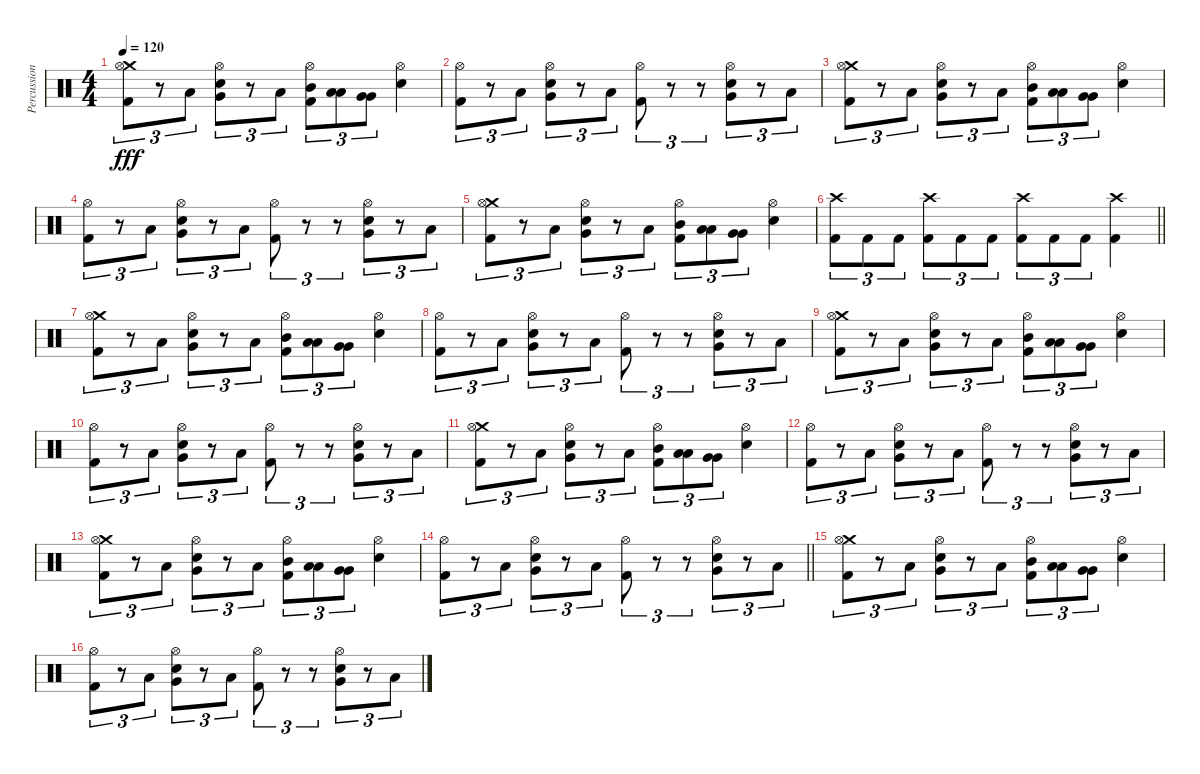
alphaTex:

\track ("Percussion" "Percussion") {instrument percussion}
\staff {score}
\articulation defaults
\ts (4 4)
\tempo 120
\clef neutral
\ks c
("Crash medium (hit)" "Hi-Hat (open)" "Kick (hit) 2").8{tu (3 2) dy fff} r.8{tu (3 2)} "Low Tom (hit)".8{tu (3 2)} ("Very Low Tom (hit)" "Hi-Hat (open)" "Snare (hit) 2").8{tu (3 2)} r.8{tu (3 2)} "Low Tom (hit)".8{tu (3 2)} ("Mid Tom (hit)" "Hi-Hat (open)" "Kick (hit) 2").8{tu (3 2)} ("Low Tom (hit)" "Low Tom (hit)").8{tu (3 2)} ("Very Low Tom (hit)" "Very Low Tom (hit)").8{tu (3 2)} ("Hi-Hat (open)" "Snare (hit) 2").4 |
("Hi-Hat (open)" "Kick (hit) 2").8{tu (3 2)} r.8{tu (3 2)} "Low Tom (hit)".8{tu (3 2)} ("Very Low Tom (hit)" "Hi-Hat (open)" "Snare (hit) 2").8{tu (3 2)} r.8{tu (3 2)} "Low Tom (hit)".8{tu (3 2)} ("Hi-Hat (open)" "Kick (hit) 2").8{tu (3 2)} r.8{tu (3 2)} r.8{tu (3 2)} ("Very Low Tom (hit)" "Hi-Hat (open)" "Snare (hit) 2").8{tu (3 2)} r.8{tu (3 2)} "Low Tom (hit)".8{tu (3 2)} |
("Crash medium (hit)" "Hi-Hat (open)" "Kick (hit) 2").8{tu (3 2)} r.8{tu (3 2)} "Low Tom (hit)".8{tu (3 2)} ("Very Low Tom (hit)" "Hi-Hat (open)" "Snare (hit) 2").8{tu (3 2)} r.8{tu (3 2)} "Low Tom (hit)".8{tu (3 2)} ("Mid Tom (hit)" "Hi-Hat (open)" "Kick (hit) 2").8{tu (3 2)} ("Low Tom (hit)" "Low Tom (hit)").8{tu (3 2)} ("Very Low Tom (hit)" "Very Low Tom (hit)").8{tu (3 2)} ("Hi-Hat (open)" "Snare (hit) 2").4 |
("Hi-Hat (open)" "Kick (hit) 2").8{tu (3 2)} r.8{tu (3 2)} "Low Tom (hit)".8{tu (3 2)} ("Very Low Tom (hit)" "Hi-Hat (open)" "Snare (hit) 2").8{tu (3 2)} r.8{tu (3 2)} "Low Tom (hit)".8{tu (3 2)} ("Hi-Hat (open)" "Kick (hit) 2").8{tu (3 2)} r.8{tu (3 2)} r.8{tu (3 2)} ("Very Low Tom (hit)" "Hi-Hat (open)" "Snare (hit) 2").8{tu (3 2)} r.8{tu (3 2)} "Low Tom (hit)".8{tu (3 2)} |
("Crash medium (hit)" "Hi-Hat (open)" "Kick (hit) 2").8{tu (3 2)} r.8{tu (3 2)} "Low Tom (hit)".8{tu (3 2)} ("Very Low Tom (hit)" "Hi-Hat (open)" "Snare (hit) 2").8{tu (3 2)} r.8{tu (3 2)} "Low Tom (hit)".8{tu (3 2)} ("Mid Tom (hit)" "Hi-Hat (open)" "Kick (hit) 2").8{tu (3 2)} ("Low Tom (hit)" "Low Tom (hit)").8{tu (3 2)} ("Very Low Tom (hit)" "Very Low Tom (hit)").8{tu (3 2)} ("Hi-Hat (open)" "Snare (hit) 2").4 |
\barLineRight lightlight
("Crash high (hit)" "Kick (hit) 2").8{tu (3 2)} "Kick (hit) 2".8{tu (3 2)} "Kick (hit) 2".8{tu (3 2)} ("Crash high (hit)" "Kick (hit) 2").8{tu (3 2)} "Kick (hit) 2".8{tu (3 2)} "Kick (hit) 2".8{tu (3 2)} ("Crash high (hit)" "Kick (hit) 2").8{tu (3 2)} "Kick (hit) 2".8{tu (3 2)} "Kick (hit) 2".8{tu (3 2)} ("Crash high (hit)" "Kick (hit) 2").4 |
\section ("" "")
("Crash medium (hit)" "Hi-Hat (open)" "Kick (hit) 2").8{tu (3 2)} r.8{tu (3 2)} "Low Tom (hit)".8{tu (3 2)} ("Very Low Tom (hit)" "Hi-Hat (open)" "Snare (hit) 2").8{tu (3 2)} r.8{tu (3 2)} "Low Tom (hit)".8{tu (3 2)} ("Mid Tom (hit)" "Hi-Hat (open)" "Kick (hit) 2").8{tu (3 2)} ("Low Tom (hit)" "Low Tom (hit)").8{tu (3 2)} ("Very Low Tom (hit)" "Very Low Tom (hit)").8{tu (3 2)} ("Hi-Hat (open)" "Snare (hit) 2").4 |
("Hi-Hat (open)" "Kick (hit) 2").8{tu (3 2)} r.8{tu (3 2)} "Low Tom (hit)".8{tu (3 2)} ("Very Low Tom (hit)" "Hi-Hat (open)" "Snare (hit) 2").8{tu (3 2)} r.8{tu (3 2)} "Low Tom (hit)".8{tu (3 2)} ("Hi-Hat (open)" "Kick (hit) 2").8{tu (3 2)} r.8{tu (3 2)} r.8{tu (3 2)} ("Very Low Tom (hit)" "Hi-Hat (open)" "Snare (hit) 2").8{tu (3 2)} r.8{tu (3 2)} "Low Tom (hit)".8{tu (3 2)} |
("Crash medium (hit)" "Hi-Hat (open)" "Kick (hit) 2").8{tu (3 2)} r.8{tu (3 2)} "Low Tom (hit)".8{tu (3 2)} ("Very Low Tom (hit)" "Hi-Hat (open)" "Snare (hit) 2").8{tu (3 2)} r.8{tu (3 2)} "Low Tom (hit)".8{tu (3 2)} ("Mid Tom (hit)" "Hi-Hat (open)" "Kick (hit) 2").8{tu (3 2)} ("Low Tom (hit)" "Low Tom (hit)").8{tu (3 2)} ("Very Low Tom (hit)" "Very Low Tom (hit)").8{tu (3 2)} ("Hi-Hat (open)" "Snare (hit) 2").4 |
("Hi-Hat (open)" "Kick (hit) 2").8{tu (3 2)} r.8{tu (3 2)} "Low Tom (hit)".8{tu (3 2)} ("Very Low Tom (hit)" "Hi-Hat (open)" "Snare (hit) 2").8{tu (3 2)} r.8{tu (3 2)} "Low Tom (hit)".8{tu (3 2)} ("Hi-Hat (open)" "Kick (hit) 2").8{tu (3 2)} r.8{tu (3 2)} r.8{tu (3 2)} ("Very Low Tom (hit)" "Hi-Hat (open)" "Snare (hit) 2").8{tu (3 2)} r.8{tu (3 2)} "Low Tom (hit)".8{tu (3 2)} |
("Crash medium (hit)" "Hi-Hat (open)" "Kick (hit) 2").8{tu (3 2)} r.8{tu (3 2)} "Low Tom (hit)".8{tu (3 2)} ("Very Low Tom (hit)" "Hi-Hat (open)" "Snare (hit) 2").8{tu (3 2)} r.8{tu (3 2)} "Low Tom (hit)".8{tu (3 2)} ("Mid Tom (hit)" "Hi-Hat (open)" "Kick (hit) 2").8{tu (3 2)} ("Low Tom (hit)" "Low Tom (hit)").8{tu (3 2)} ("Very Low Tom (hit)" "Very Low Tom (hit)").8{tu (3 2)} ("Hi-Hat (open)" "Snare (hit) 2").4 |
("Hi-Hat (open)" "Kick (hit) 2").8{tu (3 2)} r.8{tu (3 2)} "Low Tom (hit)".8{tu (3 2)} ("Very Low Tom (hit)" "Hi-Hat (open)" "Snare (hit) 2").8{tu (3 2)} r.8{tu (3 2)} "Low Tom (hit)".8{tu (3 2)} ("Hi-Hat (open)" "Kick (hit) 2").8{tu (3 2)} r.8{tu (3 2)} r.8{tu (3 2)} ("Very Low Tom (hit)" "Hi-Hat (open)" "Snare (hit) 2").8{tu (3 2)} r.8{tu (3 2)} "Low Tom (hit)".8{tu (3 2)} |
("Crash medium (hit)" "Hi-Hat (open)" "Kick (hit) 2").8{tu (3 2)} r.8{tu (3 2)} "Low Tom (hit)".8{tu (3 2)} ("Very Low Tom (hit)" "Hi-Hat (open)" "Snare (hit) 2").8{tu (3 2)} r.8{tu (3 2)} "Low Tom (hit)".8{tu (3 2)} ("Mid Tom (hit)" "Hi-Hat (open)" "Kick (hit) 2").8{tu (3 2)} ("Low Tom (hit)" "Low Tom (hit)").8{tu (3 2)} ("Very Low Tom (hit)" "Very Low Tom (hit)").8{tu (3 2)} ("Hi-Hat (open)" "Snare (hit) 2").4 |
\barLineRight lightlight
("Hi-Hat (open)" "Kick (hit) 2").8{tu (3 2)} r.8{tu (3 2)} "Low Tom (hit)".8{tu (3 2)} ("Very Low Tom (hit)" "Hi-Hat (open)" "Snare (hit) 2").8{tu (3 2)} r.8{tu (3 2)} "Low Tom (hit)".8{tu (3 2)} ("Hi-Hat (open)" "Kick (hit) 2").8{tu (3 2)} r.8{tu (3 2)} r.8{tu (3 2)} ("Very Low Tom (hit)" "Hi-Hat (open)" "Snare (hit) 2").8{tu (3 2)} r.8{tu (3 2)} "Low Tom (hit)".8{tu (3 2)} |
\section ("" "")
("Crash medium (hit)" "Hi-Hat (open)" "Kick (hit) 2").8{tu (3 2)} r.8{tu (3 2)} "Low Tom (hit)".8{tu (3 2)} ("Very Low Tom (hit)" "Hi-Hat (open)" "Snare (hit) 2").8{tu (3 2)} r.8{tu (3 2)} "Low Tom (hit)".8{tu (3 2)} ("Mid Tom (hit)" "Hi-Hat (open)" "Kick (hit) 2").8{tu (3 2)} ("Low Tom (hit)" "Low Tom (hit)").8{tu (3 2)} ("Very Low Tom (hit)" "Very Low Tom (hit)").8{tu (3 2)} ("Hi-Hat (open)" "Snare (hit) 2").4 |
("Hi-Hat (open)" "Kick (hit) 2").8{tu (3 2)} r.8{tu (3 2)} "Low Tom (hit)".8{tu (3 2)} ("Very Low Tom (hit)" "Hi-Hat (open)" "Snare (hit) 2").8{tu (3 2)} r.8{tu (3 2)} "Low Tom (hit)".8{tu (3 2)} ("Hi-Hat (open)" "Kick (hit) 2").8{tu (3 2)} r.8{tu (3 2)} r.8{tu (3 2)} ("Very Low Tom (hit)" "Hi-Hat (open)" "Snare (hit) 2").8{tu (3 2)} r.8{tu (3 2)} "Low Tom (hit)".8{tu (3 2)}
